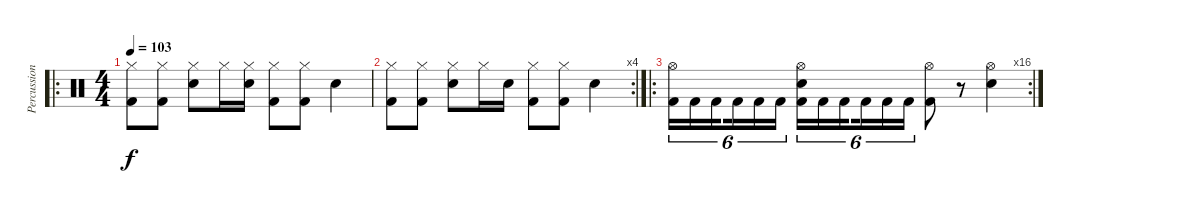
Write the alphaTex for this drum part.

\track ("Percussions" "Percussion") {instrument percussion}
\staff {score}
\articulation defaults
\ro
\ts (4 4)
\tempo 103
\clef neutral
\ks c
("Hi-Hat (closed)" "Kick (hit) 2").8{dy f} ("Hi-Hat (closed)" "Kick (hit) 2").8 ("Hi-Hat (closed)" "Electric Snare (hit)").8 "Hi-Hat (closed)".16 ("Hi-Hat (closed)" "Electric Snare (hit)").16 ("Hi-Hat (closed)" "Kick (hit) 2").8 ("Hi-Hat (closed)" "Kick (hit) 2").8 "Electric Snare (hit)".4 |
\rc 4
("Hi-Hat (closed)" "Kick (hit) 2").8 ("Hi-Hat (closed)" "Kick (hit) 2").8 ("Hi-Hat (closed)" "Electric Snare (hit)").8 "Hi-Hat (closed)".16 "Electric Snare (hit)".16 ("Hi-Hat (closed)" "Kick (hit) 2").8 ("Hi-Hat (closed)" "Kick (hit) 2").8 "Electric Snare (hit)".4 |
\ro
\rc 16
("Hi-Hat (open)" "Kick (hit) 2").16{tu (6 4)} "Kick (hit) 2".16{tu (6 4)} "Kick (hit) 2".16{tu (6 4) beam splitsecondary} "Kick (hit) 2".16{tu (6 4)} "Kick (hit) 2".16{tu (6 4)} "Kick (hit) 2".16{tu (6 4)} ("Electric Snare (hit)" "Hi-Hat (open)" "Kick (hit) 2").16{tu (6 4)} "Kick (hit) 2".16{tu (6 4)} "Kick (hit) 2".16{tu (6 4) beam splitsecondary} "Kick (hit) 2".16{tu (6 4)} "Kick (hit) 2".16{tu (6 4)} "Kick (hit) 2".16{tu (6 4)} ("Hi-Hat (open)" "Kick (hit) 2").8 r.8 ("Hi-Hat (open)" "Electric Snare (hit)").4
